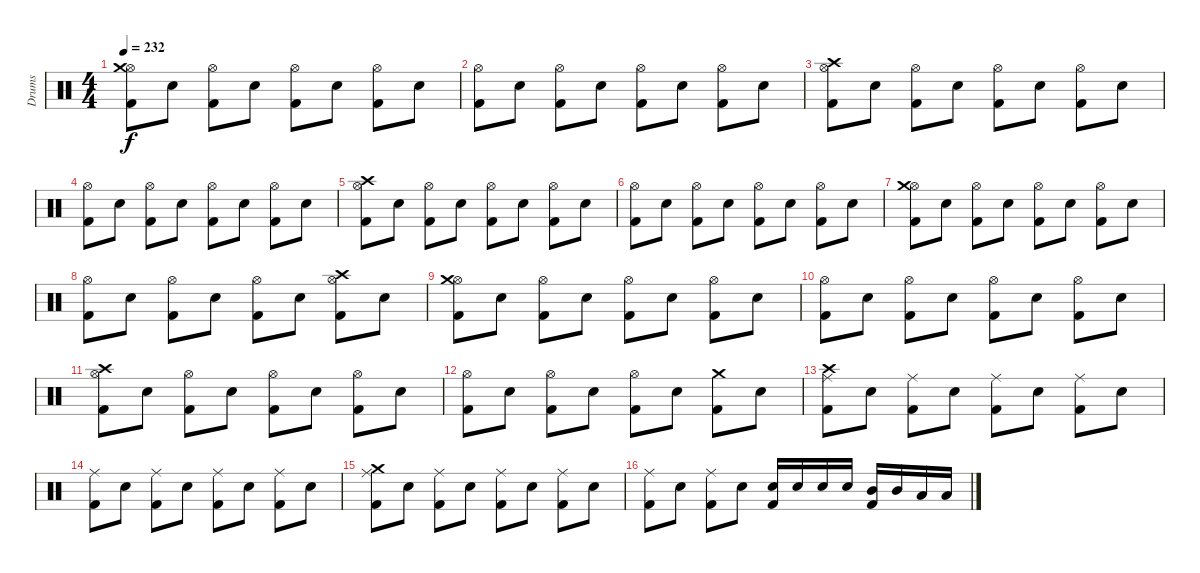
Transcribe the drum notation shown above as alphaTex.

\track ("Drums" "Drums") {instrument percussion}
\staff {score}
\articulation defaults
\ts (4 4)
\tempo 232
\clef neutral
\ks c
("Kick (hit) 2" "Hi-Hat (open)" "Crash medium (hit)").8{dy f} "Snare (hit) 2".8 ("Kick (hit) 2" "Hi-Hat (open)").8 "Snare (hit) 2".8 ("Kick (hit) 2" "Hi-Hat (open)").8 "Snare (hit) 2".8 ("Kick (hit) 2" "Hi-Hat (open)").8 "Snare (hit) 2".8 |
("Kick (hit) 2" "Hi-Hat (open)").8 "Snare (hit) 2".8 ("Kick (hit) 2" "Hi-Hat (open)").8 "Snare (hit) 2".8 ("Kick (hit) 2" "Hi-Hat (open)").8 "Snare (hit) 2".8 ("Kick (hit) 2" "Hi-Hat (open)").8 "Snare (hit) 2".8 |
("Kick (hit) 2" "Hi-Hat (open)" "Crash high (hit)").8 "Snare (hit) 2".8 ("Kick (hit) 2" "Hi-Hat (open)").8 "Snare (hit) 2".8 ("Kick (hit) 2" "Hi-Hat (open)").8 "Snare (hit) 2".8 ("Kick (hit) 2" "Hi-Hat (open)").8 "Snare (hit) 2".8 |
("Kick (hit) 2" "Hi-Hat (open)").8 "Snare (hit) 2".8 ("Kick (hit) 2" "Hi-Hat (open)").8 "Snare (hit) 2".8 ("Kick (hit) 2" "Hi-Hat (open)").8 "Snare (hit) 2".8 ("Kick (hit) 2" "Hi-Hat (open)").8 "Snare (hit) 2".8 |
("Kick (hit) 2" "Hi-Hat (open)" "Crash high (hit)").8 "Snare (hit) 2".8 ("Kick (hit) 2" "Hi-Hat (open)").8 "Snare (hit) 2".8 ("Kick (hit) 2" "Hi-Hat (open)").8 "Snare (hit) 2".8 ("Kick (hit) 2" "Hi-Hat (open)").8 "Snare (hit) 2".8 |
("Kick (hit) 2" "Hi-Hat (open)").8 "Snare (hit) 2".8 ("Kick (hit) 2" "Hi-Hat (open)").8 "Snare (hit) 2".8 ("Kick (hit) 2" "Hi-Hat (open)").8 "Snare (hit) 2".8 ("Kick (hit) 2" "Hi-Hat (open)").8 "Snare (hit) 2".8 |
("Kick (hit) 2" "Hi-Hat (open)" "Crash medium (hit)").8 "Snare (hit) 2".8 ("Kick (hit) 2" "Hi-Hat (open)").8 "Snare (hit) 2".8 ("Kick (hit) 2" "Hi-Hat (open)").8 "Snare (hit) 2".8 ("Kick (hit) 2" "Hi-Hat (open)").8 "Snare (hit) 2".8 |
("Kick (hit) 2" "Hi-Hat (open)").8 "Snare (hit) 2".8 ("Kick (hit) 2" "Hi-Hat (open)").8 "Snare (hit) 2".8 ("Kick (hit) 2" "Hi-Hat (open)").8 "Snare (hit) 2".8 ("Kick (hit) 2" "Hi-Hat (open)" "Crash high (hit)").8 "Snare (hit) 2".8 |
("Kick (hit) 2" "Hi-Hat (open)" "Crash medium (hit)").8 "Snare (hit) 2".8 ("Kick (hit) 2" "Hi-Hat (open)").8 "Snare (hit) 2".8 ("Kick (hit) 2" "Hi-Hat (open)").8 "Snare (hit) 2".8 ("Kick (hit) 2" "Hi-Hat (open)").8 "Snare (hit) 2".8 |
("Kick (hit) 2" "Hi-Hat (open)").8 "Snare (hit) 2".8 ("Kick (hit) 2" "Hi-Hat (open)").8 "Snare (hit) 2".8 ("Kick (hit) 2" "Hi-Hat (open)").8 "Snare (hit) 2".8 ("Kick (hit) 2" "Hi-Hat (open)").8 "Snare (hit) 2".8 |
("Kick (hit) 2" "Hi-Hat (open)" "Crash high (hit)").8 "Snare (hit) 2".8 ("Kick (hit) 2" "Hi-Hat (open)").8 "Snare (hit) 2".8 ("Kick (hit) 2" "Hi-Hat (open)").8 "Snare (hit) 2".8 ("Kick (hit) 2" "Hi-Hat (open)").8 "Snare (hit) 2".8 |
("Kick (hit) 2" "Hi-Hat (open)").8 "Snare (hit) 2".8 ("Kick (hit) 2" "Hi-Hat (open)").8 "Snare (hit) 2".8 ("Kick (hit) 2" "Hi-Hat (open)").8 "Snare (hit) 2".8 ("Kick (hit) 2" "Crash medium (hit)").8 "Snare (hit) 2".8 |
("Kick (hit) 2" "Ride (middle)" "Crash high (hit)").8 "Snare (hit) 2".8 ("Kick (hit) 2" "Ride (middle)").8 "Snare (hit) 2".8 ("Kick (hit) 2" "Ride (middle)").8 "Snare (hit) 2".8 ("Kick (hit) 2" "Ride (middle)").8 "Snare (hit) 2".8 |
("Kick (hit) 2" "Ride (middle)").8 "Snare (hit) 2".8 ("Kick (hit) 2" "Ride (middle)").8 "Snare (hit) 2".8 ("Kick (hit) 2" "Ride (middle)").8 "Snare (hit) 2".8 ("Kick (hit) 2" "Ride (middle)").8 "Snare (hit) 2".8 |
("Kick (hit) 2" "Ride (middle)" "Crash medium (hit)").8 "Snare (hit) 2".8 ("Kick (hit) 2" "Ride (middle)").8 "Snare (hit) 2".8 ("Kick (hit) 2" "Ride (middle)").8 "Snare (hit) 2".8 ("Kick (hit) 2" "Ride (middle)").8 "Snare (hit) 2".8 |
("Kick (hit) 2" "Ride (middle)").8 "Snare (hit) 2".8 ("Kick (hit) 2" "Ride (middle)").8 "Snare (hit) 2".8 ("Kick (hit) 2" "Snare (hit) 2").16 "Snare (hit) 2".16 "Snare (hit) 2".16 "Snare (hit) 2".16 ("Kick (hit) 2" "Mid Tom (hit)").16 "Mid Tom (hit)".16 "Low Tom (hit)".16 "Low Tom (hit)".16
